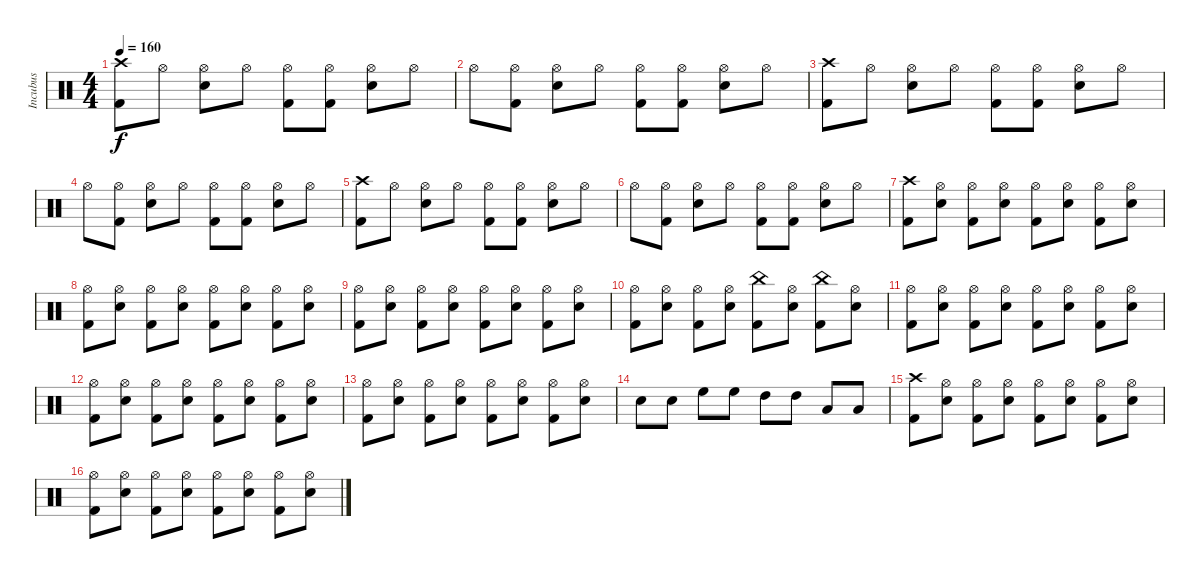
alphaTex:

\track ("Incubus" "Incubus") {instrument percussion}
\staff {score}
\articulation defaults
\ts (4 4)
\tempo 160
\clef neutral
\ks c
("Crash high (hit)" "Kick (hit) 2").8{dy f} "Hi-Hat (open)".8 ("Hi-Hat (open)" "Snare (hit) 2").8 "Hi-Hat (open)".8 ("Hi-Hat (open)" "Kick (hit) 2").8 ("Hi-Hat (open)" "Kick (hit) 2").8 ("Hi-Hat (open)" "Snare (hit) 2").8 "Hi-Hat (open)".8 |
"Hi-Hat (open)".8 ("Hi-Hat (open)" "Kick (hit) 2").8 ("Hi-Hat (open)" "Snare (hit) 2").8 "Hi-Hat (open)".8 ("Hi-Hat (open)" "Kick (hit) 2").8 ("Hi-Hat (open)" "Kick (hit) 2").8 ("Hi-Hat (open)" "Snare (hit) 2").8 "Hi-Hat (open)".8 |
("Crash high (hit)" "Kick (hit) 2").8 "Hi-Hat (open)".8 ("Hi-Hat (open)" "Snare (hit) 2").8 "Hi-Hat (open)".8 ("Hi-Hat (open)" "Kick (hit) 2").8 ("Hi-Hat (open)" "Kick (hit) 2").8 ("Hi-Hat (open)" "Snare (hit) 2").8 "Hi-Hat (open)".8 |
"Hi-Hat (open)".8 ("Hi-Hat (open)" "Kick (hit) 2").8 ("Hi-Hat (open)" "Snare (hit) 2").8 "Hi-Hat (open)".8 ("Hi-Hat (open)" "Kick (hit) 2").8 ("Hi-Hat (open)" "Kick (hit) 2").8 ("Hi-Hat (open)" "Snare (hit) 2").8 "Hi-Hat (open)".8 |
("Crash high (hit)" "Kick (hit) 2").8 "Hi-Hat (open)".8 ("Hi-Hat (open)" "Snare (hit) 2").8 "Hi-Hat (open)".8 ("Hi-Hat (open)" "Kick (hit) 2").8 ("Hi-Hat (open)" "Kick (hit) 2").8 ("Hi-Hat (open)" "Snare (hit) 2").8 "Hi-Hat (open)".8 |
"Hi-Hat (open)".8 ("Hi-Hat (open)" "Kick (hit) 2").8 ("Hi-Hat (open)" "Snare (hit) 2").8 "Hi-Hat (open)".8 ("Hi-Hat (open)" "Kick (hit) 2").8 ("Hi-Hat (open)" "Kick (hit) 2").8 ("Hi-Hat (open)" "Snare (hit) 2").8 "Hi-Hat (open)".8 |
("Crash high (hit)" "Kick (hit) 2").8 ("Hi-Hat (open)" "Snare (hit) 2").8 ("Hi-Hat (open)" "Kick (hit) 2").8 ("Hi-Hat (open)" "Snare (hit) 2").8 ("Hi-Hat (open)" "Kick (hit) 2").8 ("Hi-Hat (open)" "Snare (hit) 2").8 ("Hi-Hat (open)" "Kick (hit) 2").8 ("Hi-Hat (open)" "Snare (hit) 2").8 |
("Hi-Hat (open)" "Kick (hit) 2").8 ("Hi-Hat (open)" "Snare (hit) 2").8 ("Hi-Hat (open)" "Kick (hit) 2").8 ("Hi-Hat (open)" "Snare (hit) 2").8 ("Hi-Hat (open)" "Kick (hit) 2").8 ("Hi-Hat (open)" "Snare (hit) 2").8 ("Hi-Hat (open)" "Kick (hit) 2").8 ("Hi-Hat (open)" "Snare (hit) 2").8 |
("Hi-Hat (open)" "Kick (hit) 2").8 ("Hi-Hat (open)" "Snare (hit) 2").8 ("Hi-Hat (open)" "Kick (hit) 2").8 ("Hi-Hat (open)" "Snare (hit) 2").8 ("Hi-Hat (open)" "Kick (hit) 2").8 ("Hi-Hat (open)" "Snare (hit) 2").8 ("Hi-Hat (open)" "Kick (hit) 2").8 ("Hi-Hat (open)" "Snare (hit) 2").8 |
("Hi-Hat (open)" "Kick (hit) 2").8 ("Hi-Hat (open)" "Snare (hit) 2").8 ("Hi-Hat (open)" "Kick (hit) 2").8 ("Hi-Hat (open)" "Snare (hit) 2").8 ("China (hit)" "Kick (hit) 2").8 ("Hi-Hat (open)" "Snare (hit) 2").8 ("China (hit)" "Kick (hit) 2").8 ("Hi-Hat (open)" "Snare (hit) 2").8 |
("Hi-Hat (open)" "Kick (hit) 2").8 ("Hi-Hat (open)" "Snare (hit) 2").8 ("Hi-Hat (open)" "Kick (hit) 2").8 ("Hi-Hat (open)" "Snare (hit) 2").8 ("Hi-Hat (open)" "Kick (hit) 2").8 ("Hi-Hat (open)" "Snare (hit) 2").8 ("Hi-Hat (open)" "Kick (hit) 2").8 ("Hi-Hat (open)" "Snare (hit) 2").8 |
("Hi-Hat (open)" "Kick (hit) 2").8 ("Hi-Hat (open)" "Snare (hit) 2").8 ("Hi-Hat (open)" "Kick (hit) 2").8 ("Hi-Hat (open)" "Snare (hit) 2").8 ("Hi-Hat (open)" "Kick (hit) 2").8 ("Hi-Hat (open)" "Snare (hit) 2").8 ("Hi-Hat (open)" "Kick (hit) 2").8 ("Hi-Hat (open)" "Snare (hit) 2").8 |
("Hi-Hat (open)" "Kick (hit) 2").8 ("Hi-Hat (open)" "Snare (hit) 2").8 ("Hi-Hat (open)" "Kick (hit) 2").8 ("Hi-Hat (open)" "Snare (hit) 2").8 ("Hi-Hat (open)" "Kick (hit) 2").8 ("Hi-Hat (open)" "Snare (hit) 2").8 ("Hi-Hat (open)" "Kick (hit) 2").8 ("Hi-Hat (open)" "Snare (hit) 2").8 |
"Snare (hit) 2".8 "Snare (hit) 2".8 "High Floor Tom (hit)".8 "High Floor Tom (hit)".8 "High Tom (hit)".8 "High Tom (hit)".8 "Low Tom (hit)".8 "Low Tom (hit)".8 |
("Crash high (hit)" "Kick (hit) 2").8 ("Hi-Hat (open)" "Snare (hit) 2").8 ("Hi-Hat (open)" "Kick (hit) 2").8 ("Hi-Hat (open)" "Snare (hit) 2").8 ("Hi-Hat (open)" "Kick (hit) 2").8 ("Hi-Hat (open)" "Snare (hit) 2").8 ("Hi-Hat (open)" "Kick (hit) 2").8 ("Hi-Hat (open)" "Snare (hit) 2").8 |
("Hi-Hat (open)" "Kick (hit) 2").8 ("Hi-Hat (open)" "Snare (hit) 2").8 ("Hi-Hat (open)" "Kick (hit) 2").8 ("Hi-Hat (open)" "Snare (hit) 2").8 ("Hi-Hat (open)" "Kick (hit) 2").8 ("Hi-Hat (open)" "Snare (hit) 2").8 ("Hi-Hat (open)" "Kick (hit) 2").8 ("Hi-Hat (open)" "Snare (hit) 2").8
